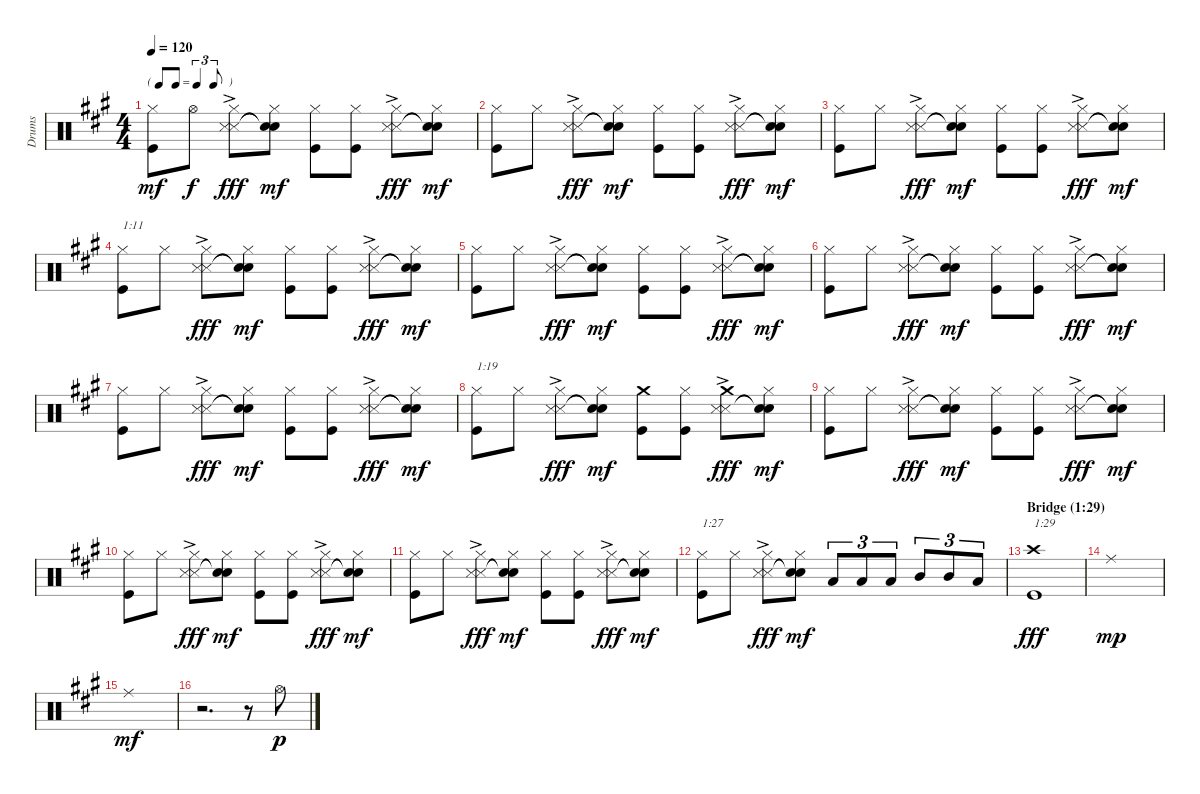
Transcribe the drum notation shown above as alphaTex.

\track ("Drums" "Drums") {instrument percussion}
\staff {score}
\articulation defaults
\ts (4 4)
\tf triplet8th
\tempo 120
\clef neutral
\ks a
("Hi-Hat (closed)" "Kick (hit)").8{dy mf} "Hi-Hat (open)".8{dy f} ("Hi-Hat (closed)" "Snare (side stick) 3"{ac} "Snare (side stick) 3"{ac}).8{dy fff} ("Hi-Hat (closed)" "Snare (hit)"{t} "Snare (hit)"{t}).8{dy mf} ("Hi-Hat (closed)" "Kick (hit)").8 ("Hi-Hat (closed)" "Kick (hit)").8 ("Hi-Hat (closed)" "Snare (side stick) 3"{ac} "Snare (side stick) 3"{ac}).8{dy fff} ("Hi-Hat (closed)" "Snare (hit)"{t} "Snare (hit)"{t}).8{dy mf} |
("Hi-Hat (closed)" "Kick (hit)").8 "Hi-Hat (closed)".8 ("Hi-Hat (closed)" "Snare (side stick) 3"{ac} "Snare (side stick) 3"{ac}).8{dy fff} ("Hi-Hat (closed)" "Snare (hit)"{t} "Snare (hit)"{t}).8{dy mf} ("Hi-Hat (closed)" "Kick (hit)").8 ("Hi-Hat (closed)" "Kick (hit)").8 ("Hi-Hat (closed)" "Snare (side stick) 3"{ac} "Snare (side stick) 3"{ac}).8{dy fff} ("Hi-Hat (closed)" "Snare (hit)"{t} "Snare (hit)"{t}).8{dy mf} |
("Hi-Hat (closed)" "Kick (hit)").8 "Hi-Hat (closed)".8 ("Hi-Hat (closed)" "Snare (side stick) 3"{ac} "Snare (side stick) 3"{ac}).8{dy fff} ("Hi-Hat (closed)" "Snare (hit)"{t} "Snare (hit)"{t}).8{dy mf} ("Hi-Hat (closed)" "Kick (hit)").8 ("Hi-Hat (closed)" "Kick (hit)").8 ("Hi-Hat (closed)" "Snare (side stick) 3"{ac} "Snare (side stick) 3"{ac}).8{dy fff} ("Hi-Hat (closed)" "Snare (hit)"{t} "Snare (hit)"{t}).8{dy mf} |
("Hi-Hat (closed)" "Kick (hit)").8{txt "1:11"} "Hi-Hat (closed)".8 ("Hi-Hat (closed)" "Snare (side stick) 3"{ac} "Snare (side stick) 3"{ac}).8{dy fff} ("Hi-Hat (closed)" "Snare (hit)"{t} "Snare (hit)"{t}).8{dy mf} ("Hi-Hat (closed)" "Kick (hit)").8 ("Hi-Hat (closed)" "Kick (hit)").8 ("Hi-Hat (closed)" "Snare (side stick) 3"{ac} "Snare (side stick) 3"{ac}).8{dy fff} ("Hi-Hat (closed)" "Snare (hit)"{t} "Snare (hit)"{t}).8{dy mf} |
("Hi-Hat (closed)" "Kick (hit)").8 "Hi-Hat (closed)".8 ("Hi-Hat (closed)" "Snare (side stick) 3"{ac} "Snare (side stick) 3"{ac}).8{dy fff} ("Hi-Hat (closed)" "Snare (hit)"{t} "Snare (hit)"{t}).8{dy mf} ("Hi-Hat (closed)" "Kick (hit)").8 ("Hi-Hat (closed)" "Kick (hit)").8 ("Hi-Hat (closed)" "Snare (side stick) 3"{ac} "Snare (side stick) 3"{ac}).8{dy fff} ("Hi-Hat (closed)" "Snare (hit)"{t} "Snare (hit)"{t}).8{dy mf} |
("Hi-Hat (closed)" "Kick (hit)").8 "Hi-Hat (closed)".8 ("Hi-Hat (closed)" "Snare (side stick) 3"{ac} "Snare (side stick) 3"{ac}).8{dy fff} ("Hi-Hat (closed)" "Snare (hit)"{t} "Snare (hit)"{t}).8{dy mf} ("Hi-Hat (closed)" "Kick (hit)").8 ("Hi-Hat (closed)" "Kick (hit)").8 ("Hi-Hat (closed)" "Snare (side stick) 3"{ac} "Snare (side stick) 3"{ac}).8{dy fff} ("Hi-Hat (closed)" "Snare (hit)"{t} "Snare (hit)"{t}).8{dy mf} |
("Hi-Hat (closed)" "Kick (hit)").8 "Hi-Hat (closed)".8 ("Hi-Hat (closed)" "Snare (side stick) 3"{ac} "Snare (side stick) 3"{ac}).8{dy fff} ("Hi-Hat (closed)" "Snare (hit)"{t} "Snare (hit)"{t}).8{dy mf} ("Hi-Hat (closed)" "Kick (hit)").8 ("Hi-Hat (closed)" "Kick (hit)").8 ("Hi-Hat (closed)" "Snare (side stick) 3"{ac} "Snare (side stick) 3"{ac}).8{dy fff} ("Hi-Hat (closed)" "Snare (hit)"{t} "Snare (hit)"{t}).8{dy mf} |
("Hi-Hat (closed)" "Kick (hit)").8{txt "1:19"} "Hi-Hat (closed)".8 ("Hi-Hat (closed)" "Snare (side stick) 3"{ac} "Snare (side stick) 3"{ac}).8{dy fff} ("Hi-Hat (closed)" "Snare (hit)"{t} "Snare (hit)"{t}).8{dy mf} ("Crash medium (hit)" "Kick (hit)").8 ("Hi-Hat (closed)" "Kick (hit)").8 ("Crash medium (hit)"{ac} "Snare (side stick) 3"{ac} "Snare (side stick) 3"{ac}).8{dy fff} ("Hi-Hat (closed)" "Snare (hit)"{t} "Snare (hit)"{t}).8{dy mf} |
("Hi-Hat (closed)" "Kick (hit)").8 "Hi-Hat (closed)".8 ("Hi-Hat (closed)" "Snare (side stick) 3"{ac} "Snare (side stick) 3"{ac}).8{dy fff} ("Hi-Hat (closed)" "Snare (hit)"{t} "Snare (hit)"{t}).8{dy mf} ("Hi-Hat (closed)" "Kick (hit)").8 ("Hi-Hat (closed)" "Kick (hit)").8 ("Hi-Hat (closed)" "Snare (side stick) 3"{ac} "Snare (side stick) 3"{ac}).8{dy fff} ("Hi-Hat (closed)" "Snare (hit)"{t} "Snare (hit)"{t}).8{dy mf} |
("Hi-Hat (closed)" "Kick (hit)").8 "Hi-Hat (closed)".8 ("Hi-Hat (closed)" "Snare (side stick) 3"{ac} "Snare (side stick) 3"{ac}).8{dy fff} ("Hi-Hat (closed)" "Snare (hit)"{t} "Snare (hit)"{t}).8{dy mf} ("Hi-Hat (closed)" "Kick (hit)").8 ("Hi-Hat (closed)" "Kick (hit)").8 ("Hi-Hat (closed)" "Snare (side stick) 3"{ac} "Snare (side stick) 3"{ac}).8{dy fff} ("Hi-Hat (closed)" "Snare (hit)"{t} "Snare (hit)"{t}).8{dy mf} |
("Hi-Hat (closed)" "Kick (hit)").8 "Hi-Hat (closed)".8 ("Hi-Hat (closed)" "Snare (side stick) 3"{ac} "Snare (side stick) 3"{ac}).8{dy fff} ("Hi-Hat (closed)" "Snare (hit)"{t} "Snare (hit)"{t}).8{dy mf} ("Hi-Hat (closed)" "Kick (hit)").8 ("Hi-Hat (closed)" "Kick (hit)").8 ("Hi-Hat (closed)" "Snare (side stick) 3"{ac} "Snare (side stick) 3"{ac}).8{dy fff} ("Hi-Hat (closed)" "Snare (hit)"{t} "Snare (hit)"{t}).8{dy mf} |
("Hi-Hat (closed)" "Kick (hit)").8{txt "1:27"} "Hi-Hat (closed)".8 ("Hi-Hat (closed)" "Snare (side stick) 3"{ac} "Snare (side stick) 3"{ac}).8{dy fff} ("Hi-Hat (closed)" "Snare (hit)"{t} "Snare (hit)"{t}).8{dy mf} "Low Tom (hit)".8{tu (3 2)} "Low Tom (hit)".8{tu (3 2)} "Low Tom (hit)".8{tu (3 2)} "Mid Tom (hit)".8{tu (3 2)} "Mid Tom (hit)".8{tu (3 2)} "Low Tom (hit)".8{tu (3 2)} |
\section ("" "Bridge (1:29)")
("Crash high (hit)" "Kick (hit)").1{txt "1:29" dy fff} |
"Ride (middle)".1{dy mp} |
"Ride (middle)".1{dy mf} |
r.2{d} r.8 "Hi-Hat (open)".8{dy p}
